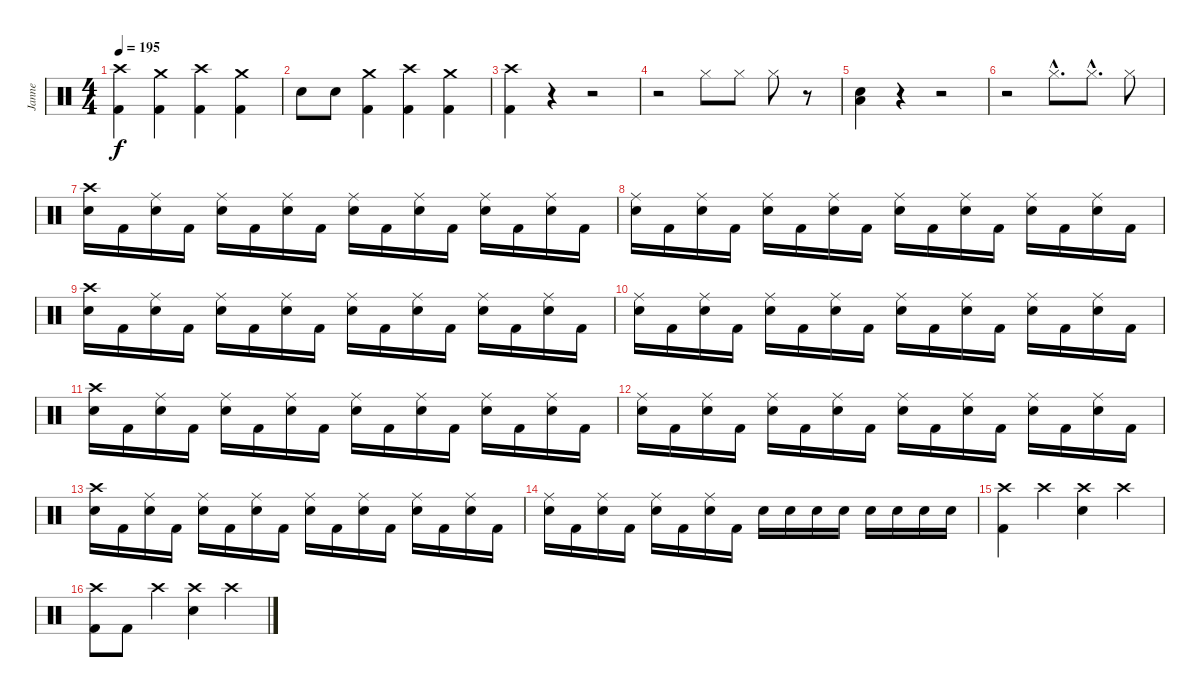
\track ("Janne" "Janne") {instrument percussion}
\staff {score}
\articulation defaults
\ts (4 4)
\tempo 195
\clef neutral
\ks c
("Crash high (hit)" "Kick (hit) 2").4{dy f} ("Crash medium (hit)" "Kick (hit) 2").4 ("Crash high (hit)" "Kick (hit) 2").4 ("Crash medium (hit)" "Kick (hit) 2").4 |
"Electric Snare (hit)".8 "Electric Snare (hit)".8 ("Crash medium (hit)" "Kick (hit) 2").4 ("Crash high (hit)" "Kick (hit) 2").4 ("Crash medium (hit)" "Kick (hit) 2").4 |
("Crash high (hit)" "Kick (hit) 2").4 r.4 r.2 |
r.2 "Hi-Hat (closed)".8 "Hi-Hat (closed)".8 "Hi-Hat (closed)".8 r.8 |
("Low Floor Tom (hit)" "Electric Snare (hit)").4 r.4 r.2 |
r.2 "Hi-Hat (closed)"{hac}.8{d} "Hi-Hat (closed)"{hac}.8{d} "Hi-Hat (closed)".8 |
("Crash high (hit)" "Electric Snare (hit)").16 "Kick (hit) 2".16 ("Ride (middle)" "Electric Snare (hit)").16 "Kick (hit) 2".16 ("Ride (middle)" "Electric Snare (hit)").16 "Kick (hit) 2".16 ("Ride (middle)" "Electric Snare (hit)").16 "Kick (hit) 2".16 ("Ride (middle)" "Electric Snare (hit)").16 "Kick (hit) 2".16 ("Ride (middle)" "Electric Snare (hit)").16 "Kick (hit) 2".16 ("Ride (middle)" "Electric Snare (hit)").16 "Kick (hit) 2".16 ("Ride (middle)" "Electric Snare (hit)").16 "Kick (hit) 2".16 |
("Ride (middle)" "Electric Snare (hit)").16 "Kick (hit) 2".16 ("Ride (middle)" "Electric Snare (hit)").16 "Kick (hit) 2".16 ("Ride (middle)" "Electric Snare (hit)").16 "Kick (hit) 2".16 ("Ride (middle)" "Electric Snare (hit)").16 "Kick (hit) 2".16 ("Ride (middle)" "Electric Snare (hit)").16 "Kick (hit) 2".16 ("Ride (middle)" "Electric Snare (hit)").16 "Kick (hit) 2".16 ("Ride (middle)" "Electric Snare (hit)").16 "Kick (hit) 2".16 ("Ride (middle)" "Electric Snare (hit)").16 "Kick (hit) 2".16 |
("Crash high (hit)" "Electric Snare (hit)").16 "Kick (hit) 2".16 ("Ride (middle)" "Electric Snare (hit)").16 "Kick (hit) 2".16 ("Ride (middle)" "Electric Snare (hit)").16 "Kick (hit) 2".16 ("Ride (middle)" "Electric Snare (hit)").16 "Kick (hit) 2".16 ("Ride (middle)" "Electric Snare (hit)").16 "Kick (hit) 2".16 ("Ride (middle)" "Electric Snare (hit)").16 "Kick (hit) 2".16 ("Ride (middle)" "Electric Snare (hit)").16 "Kick (hit) 2".16 ("Ride (middle)" "Electric Snare (hit)").16 "Kick (hit) 2".16 |
("Ride (middle)" "Electric Snare (hit)").16 "Kick (hit) 2".16 ("Ride (middle)" "Electric Snare (hit)").16 "Kick (hit) 2".16 ("Ride (middle)" "Electric Snare (hit)").16 "Kick (hit) 2".16 ("Ride (middle)" "Electric Snare (hit)").16 "Kick (hit) 2".16 ("Ride (middle)" "Electric Snare (hit)").16 "Kick (hit) 2".16 ("Ride (middle)" "Electric Snare (hit)").16 "Kick (hit) 2".16 ("Ride (middle)" "Electric Snare (hit)").16 "Kick (hit) 2".16 ("Ride (middle)" "Electric Snare (hit)").16 "Kick (hit) 2".16 |
("Crash high (hit)" "Electric Snare (hit)").16 "Kick (hit) 2".16 ("Ride (middle)" "Electric Snare (hit)").16 "Kick (hit) 2".16 ("Ride (middle)" "Electric Snare (hit)").16 "Kick (hit) 2".16 ("Ride (middle)" "Electric Snare (hit)").16 "Kick (hit) 2".16 ("Ride (middle)" "Electric Snare (hit)").16 "Kick (hit) 2".16 ("Ride (middle)" "Electric Snare (hit)").16 "Kick (hit) 2".16 ("Ride (middle)" "Electric Snare (hit)").16 "Kick (hit) 2".16 ("Ride (middle)" "Electric Snare (hit)").16 "Kick (hit) 2".16 |
("Ride (middle)" "Electric Snare (hit)").16 "Kick (hit) 2".16 ("Ride (middle)" "Electric Snare (hit)").16 "Kick (hit) 2".16 ("Ride (middle)" "Electric Snare (hit)").16 "Kick (hit) 2".16 ("Ride (middle)" "Electric Snare (hit)").16 "Kick (hit) 2".16 ("Ride (middle)" "Electric Snare (hit)").16 "Kick (hit) 2".16 ("Ride (middle)" "Electric Snare (hit)").16 "Kick (hit) 2".16 ("Ride (middle)" "Electric Snare (hit)").16 "Kick (hit) 2".16 ("Ride (middle)" "Electric Snare (hit)").16 "Kick (hit) 2".16 |
("Crash high (hit)" "Electric Snare (hit)").16 "Kick (hit) 2".16 ("Ride (middle)" "Electric Snare (hit)").16 "Kick (hit) 2".16 ("Ride (middle)" "Electric Snare (hit)").16 "Kick (hit) 2".16 ("Ride (middle)" "Electric Snare (hit)").16 "Kick (hit) 2".16 ("Ride (middle)" "Electric Snare (hit)").16 "Kick (hit) 2".16 ("Ride (middle)" "Electric Snare (hit)").16 "Kick (hit) 2".16 ("Ride (middle)" "Electric Snare (hit)").16 "Kick (hit) 2".16 ("Ride (middle)" "Electric Snare (hit)").16 "Kick (hit) 2".16 |
("Ride (middle)" "Electric Snare (hit)").16 "Kick (hit) 2".16 ("Ride (middle)" "Electric Snare (hit)").16 "Kick (hit) 2".16 ("Ride (middle)" "Electric Snare (hit)").16 "Kick (hit) 2".16 ("Ride (middle)" "Electric Snare (hit)").16 "Kick (hit) 2".16 "Electric Snare (hit)".16 "Electric Snare (hit)".16 "Electric Snare (hit)".16 "Electric Snare (hit)".16 "Electric Snare (hit)".16 "Electric Snare (hit)".16 "Electric Snare (hit)".16 "Electric Snare (hit)".16 |
("Crash high (hit)" "Kick (hit) 2").4 "Crash high (hit)".4 ("Crash high (hit)" "Electric Snare (hit)").4 "Crash high (hit)".4 |
("Crash high (hit)" "Kick (hit) 2").8 "Kick (hit) 2".8 "Crash high (hit)".4 ("Crash high (hit)" "Electric Snare (hit)").4 "Crash high (hit)".4
